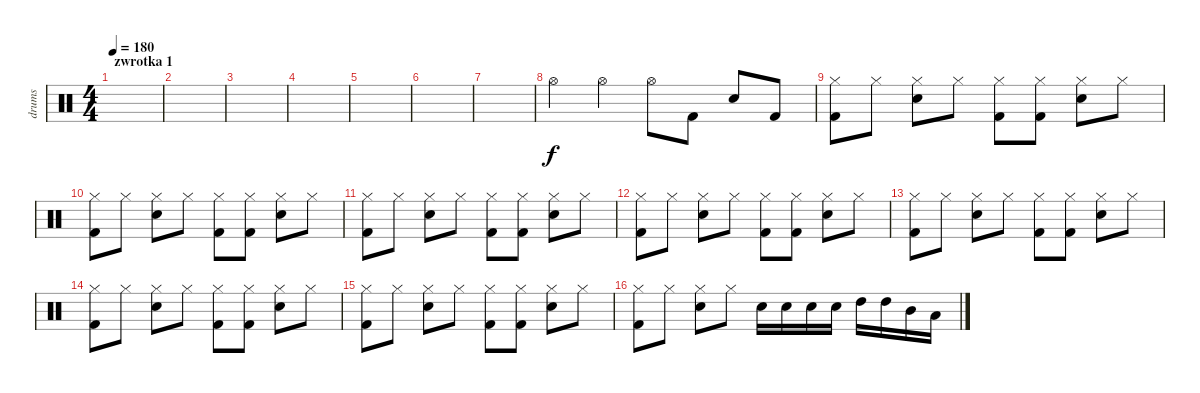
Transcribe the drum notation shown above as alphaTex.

\track ("drums" "drums") {instrument percussion}
\staff {score}
\articulation defaults
\ts (4 4)
\section ("" "zwrotka 1")
\tempo 180
\clef neutral
\ks c
|
|
|
|
|
|
|
"Hi-Hat (open)".4 "Hi-Hat (open)".4 "Hi-Hat (open)".8 "Kick (hit) 2".8 "Snare (hit) 2".8 "Kick (hit) 2".8 |
("Hi-Hat (closed)" "Kick (hit) 2").8 "Hi-Hat (closed)".8 ("Hi-Hat (closed)" "Snare (hit) 2").8 "Hi-Hat (closed)".8 ("Hi-Hat (closed)" "Kick (hit) 2").8 ("Hi-Hat (closed)" "Kick (hit) 2").8 ("Hi-Hat (closed)" "Snare (hit) 2").8 "Hi-Hat (closed)".8 |
("Hi-Hat (closed)" "Kick (hit) 2").8 "Hi-Hat (closed)".8 ("Hi-Hat (closed)" "Snare (hit) 2").8 "Hi-Hat (closed)".8 ("Hi-Hat (closed)" "Kick (hit) 2").8 ("Hi-Hat (closed)" "Kick (hit) 2").8 ("Hi-Hat (closed)" "Snare (hit) 2").8 "Hi-Hat (closed)".8 |
("Hi-Hat (closed)" "Kick (hit) 2").8 "Hi-Hat (closed)".8 ("Hi-Hat (closed)" "Snare (hit) 2").8 "Hi-Hat (closed)".8 ("Hi-Hat (closed)" "Kick (hit) 2").8 ("Hi-Hat (closed)" "Kick (hit) 2").8 ("Hi-Hat (closed)" "Snare (hit) 2").8 "Hi-Hat (closed)".8 |
("Hi-Hat (closed)" "Kick (hit) 2").8 "Hi-Hat (closed)".8 ("Hi-Hat (closed)" "Snare (hit) 2").8 "Hi-Hat (closed)".8 ("Hi-Hat (closed)" "Kick (hit) 2").8 ("Hi-Hat (closed)" "Kick (hit) 2").8 ("Hi-Hat (closed)" "Snare (hit) 2").8 "Hi-Hat (closed)".8 |
("Hi-Hat (closed)" "Kick (hit) 2").8 "Hi-Hat (closed)".8 ("Hi-Hat (closed)" "Snare (hit) 2").8 "Hi-Hat (closed)".8 ("Hi-Hat (closed)" "Kick (hit) 2").8 ("Hi-Hat (closed)" "Kick (hit) 2").8 ("Hi-Hat (closed)" "Snare (hit) 2").8 "Hi-Hat (closed)".8 |
("Hi-Hat (closed)" "Kick (hit) 2").8 "Hi-Hat (closed)".8 ("Hi-Hat (closed)" "Snare (hit) 2").8 "Hi-Hat (closed)".8 ("Hi-Hat (closed)" "Kick (hit) 2").8 ("Hi-Hat (closed)" "Kick (hit) 2").8 ("Hi-Hat (closed)" "Snare (hit) 2").8 "Hi-Hat (closed)".8 |
("Hi-Hat (closed)" "Kick (hit) 2").8 "Hi-Hat (closed)".8 ("Hi-Hat (closed)" "Snare (hit) 2").8 "Hi-Hat (closed)".8 ("Hi-Hat (closed)" "Kick (hit) 2").8 ("Hi-Hat (closed)" "Kick (hit) 2").8 ("Hi-Hat (closed)" "Snare (hit) 2").8 "Hi-Hat (closed)".8 |
("Hi-Hat (closed)" "Kick (hit) 2").8 "Hi-Hat (closed)".8 ("Hi-Hat (closed)" "Snare (hit) 2").8 "Hi-Hat (closed)".8 "Snare (hit) 2".16 "Snare (hit) 2".16 "Snare (hit) 2".16 "Snare (hit) 2".16 "High Tom (hit)".16 "High Tom (hit)".16 "Mid Tom (hit)".16 "Low Tom (hit)".16
